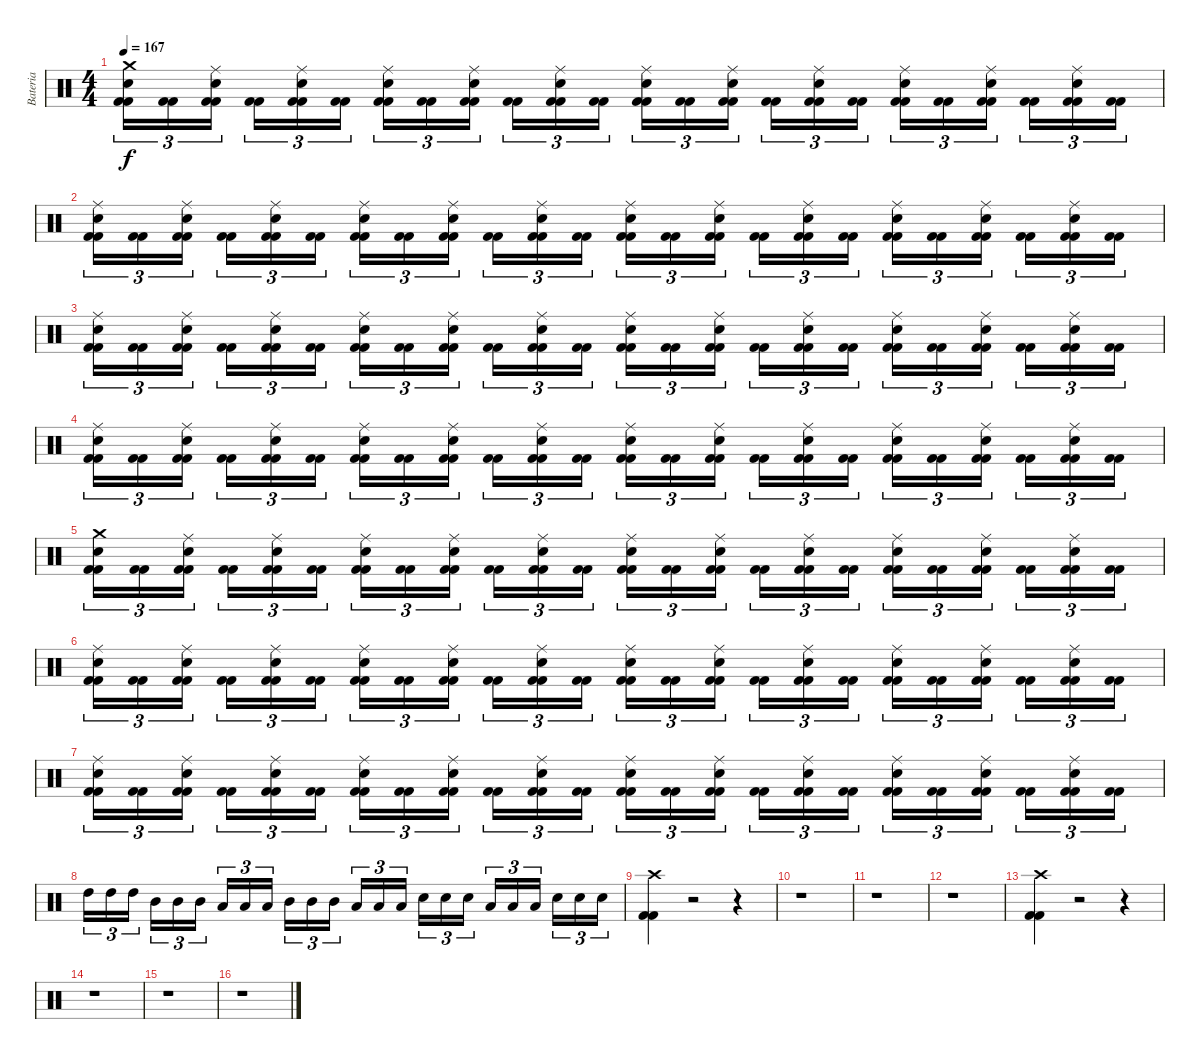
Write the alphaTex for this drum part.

\track ("Bateria" "Bateria") {instrument percussion}
\staff {score}
\articulation defaults
\ts (4 4)
\tempo 167
\clef neutral
\ks c
("Kick (hit) 2" "Kick (hit) 2" "Snare (hit) 2" "Crash medium (hit)").16{tu (3 2) dy f} ("Kick (hit) 2" "Kick (hit) 2").16{tu (3 2)} ("Kick (hit) 2" "Kick (hit) 2" "Snare (hit) 2" "Ride (middle)").16{tu (3 2)} ("Kick (hit) 2" "Kick (hit) 2").16{tu (3 2)} ("Kick (hit) 2" "Kick (hit) 2" "Snare (hit) 2" "Ride (middle)").16{tu (3 2)} ("Kick (hit) 2" "Kick (hit) 2").16{tu (3 2)} ("Kick (hit) 2" "Kick (hit) 2" "Snare (hit) 2" "Ride (middle)").16{tu (3 2)} ("Kick (hit) 2" "Kick (hit) 2").16{tu (3 2)} ("Kick (hit) 2" "Kick (hit) 2" "Snare (hit) 2" "Ride (middle)").16{tu (3 2)} ("Kick (hit) 2" "Kick (hit) 2").16{tu (3 2)} ("Kick (hit) 2" "Kick (hit) 2" "Snare (hit) 2" "Ride (middle)").16{tu (3 2)} ("Kick (hit) 2" "Kick (hit) 2").16{tu (3 2)} ("Kick (hit) 2" "Kick (hit) 2" "Snare (hit) 2" "Ride (middle)").16{tu (3 2)} ("Kick (hit) 2" "Kick (hit) 2").16{tu (3 2)} ("Kick (hit) 2" "Kick (hit) 2" "Snare (hit) 2" "Ride (middle)").16{tu (3 2)} ("Kick (hit) 2" "Kick (hit) 2").16{tu (3 2)} ("Kick (hit) 2" "Kick (hit) 2" "Snare (hit) 2" "Ride (middle)").16{tu (3 2)} ("Kick (hit) 2" "Kick (hit) 2").16{tu (3 2)} ("Kick (hit) 2" "Kick (hit) 2" "Snare (hit) 2" "Ride (middle)").16{tu (3 2)} ("Kick (hit) 2" "Kick (hit) 2").16{tu (3 2)} ("Kick (hit) 2" "Kick (hit) 2" "Snare (hit) 2" "Ride (middle)").16{tu (3 2)} ("Kick (hit) 2" "Kick (hit) 2").16{tu (3 2)} ("Kick (hit) 2" "Kick (hit) 2" "Snare (hit) 2" "Ride (middle)").16{tu (3 2)} ("Kick (hit) 2" "Kick (hit) 2").16{tu (3 2)} |
("Kick (hit) 2" "Kick (hit) 2" "Snare (hit) 2" "Ride (middle)").16{tu (3 2)} ("Kick (hit) 2" "Kick (hit) 2").16{tu (3 2)} ("Kick (hit) 2" "Kick (hit) 2" "Snare (hit) 2" "Ride (middle)").16{tu (3 2)} ("Kick (hit) 2" "Kick (hit) 2").16{tu (3 2)} ("Kick (hit) 2" "Kick (hit) 2" "Snare (hit) 2" "Ride (middle)").16{tu (3 2)} ("Kick (hit) 2" "Kick (hit) 2").16{tu (3 2)} ("Kick (hit) 2" "Kick (hit) 2" "Snare (hit) 2" "Ride (middle)").16{tu (3 2)} ("Kick (hit) 2" "Kick (hit) 2").16{tu (3 2)} ("Kick (hit) 2" "Kick (hit) 2" "Snare (hit) 2" "Ride (middle)").16{tu (3 2)} ("Kick (hit) 2" "Kick (hit) 2").16{tu (3 2)} ("Kick (hit) 2" "Kick (hit) 2" "Snare (hit) 2" "Ride (middle)").16{tu (3 2)} ("Kick (hit) 2" "Kick (hit) 2").16{tu (3 2)} ("Kick (hit) 2" "Kick (hit) 2" "Snare (hit) 2" "Ride (middle)").16{tu (3 2)} ("Kick (hit) 2" "Kick (hit) 2").16{tu (3 2)} ("Kick (hit) 2" "Kick (hit) 2" "Snare (hit) 2" "Ride (middle)").16{tu (3 2)} ("Kick (hit) 2" "Kick (hit) 2").16{tu (3 2)} ("Kick (hit) 2" "Kick (hit) 2" "Snare (hit) 2" "Ride (middle)").16{tu (3 2)} ("Kick (hit) 2" "Kick (hit) 2").16{tu (3 2)} ("Kick (hit) 2" "Kick (hit) 2" "Snare (hit) 2" "Ride (middle)").16{tu (3 2)} ("Kick (hit) 2" "Kick (hit) 2").16{tu (3 2)} ("Kick (hit) 2" "Kick (hit) 2" "Snare (hit) 2" "Ride (middle)").16{tu (3 2)} ("Kick (hit) 2" "Kick (hit) 2").16{tu (3 2)} ("Kick (hit) 2" "Kick (hit) 2" "Snare (hit) 2" "Ride (middle)").16{tu (3 2)} ("Kick (hit) 2" "Kick (hit) 2").16{tu (3 2)} |
("Kick (hit) 2" "Kick (hit) 2" "Snare (hit) 2" "Ride (middle)").16{tu (3 2)} ("Kick (hit) 2" "Kick (hit) 2").16{tu (3 2)} ("Kick (hit) 2" "Kick (hit) 2" "Snare (hit) 2" "Ride (middle)").16{tu (3 2)} ("Kick (hit) 2" "Kick (hit) 2").16{tu (3 2)} ("Kick (hit) 2" "Kick (hit) 2" "Snare (hit) 2" "Ride (middle)").16{tu (3 2)} ("Kick (hit) 2" "Kick (hit) 2").16{tu (3 2)} ("Kick (hit) 2" "Kick (hit) 2" "Snare (hit) 2" "Ride (middle)").16{tu (3 2)} ("Kick (hit) 2" "Kick (hit) 2").16{tu (3 2)} ("Kick (hit) 2" "Kick (hit) 2" "Snare (hit) 2" "Ride (middle)").16{tu (3 2)} ("Kick (hit) 2" "Kick (hit) 2").16{tu (3 2)} ("Kick (hit) 2" "Kick (hit) 2" "Snare (hit) 2" "Ride (middle)").16{tu (3 2)} ("Kick (hit) 2" "Kick (hit) 2").16{tu (3 2)} ("Kick (hit) 2" "Kick (hit) 2" "Snare (hit) 2" "Ride (middle)").16{tu (3 2)} ("Kick (hit) 2" "Kick (hit) 2").16{tu (3 2)} ("Kick (hit) 2" "Kick (hit) 2" "Snare (hit) 2" "Ride (middle)").16{tu (3 2)} ("Kick (hit) 2" "Kick (hit) 2").16{tu (3 2)} ("Kick (hit) 2" "Kick (hit) 2" "Snare (hit) 2" "Ride (middle)").16{tu (3 2)} ("Kick (hit) 2" "Kick (hit) 2").16{tu (3 2)} ("Kick (hit) 2" "Kick (hit) 2" "Snare (hit) 2" "Ride (middle)").16{tu (3 2)} ("Kick (hit) 2" "Kick (hit) 2").16{tu (3 2)} ("Kick (hit) 2" "Kick (hit) 2" "Snare (hit) 2" "Ride (middle)").16{tu (3 2)} ("Kick (hit) 2" "Kick (hit) 2").16{tu (3 2)} ("Kick (hit) 2" "Kick (hit) 2" "Snare (hit) 2" "Ride (middle)").16{tu (3 2)} ("Kick (hit) 2" "Kick (hit) 2").16{tu (3 2)} |
("Kick (hit) 2" "Kick (hit) 2" "Snare (hit) 2" "Ride (middle)").16{tu (3 2)} ("Kick (hit) 2" "Kick (hit) 2").16{tu (3 2)} ("Kick (hit) 2" "Kick (hit) 2" "Snare (hit) 2" "Ride (middle)").16{tu (3 2)} ("Kick (hit) 2" "Kick (hit) 2").16{tu (3 2)} ("Kick (hit) 2" "Kick (hit) 2" "Snare (hit) 2" "Ride (middle)").16{tu (3 2)} ("Kick (hit) 2" "Kick (hit) 2").16{tu (3 2)} ("Kick (hit) 2" "Kick (hit) 2" "Snare (hit) 2" "Ride (middle)").16{tu (3 2)} ("Kick (hit) 2" "Kick (hit) 2").16{tu (3 2)} ("Kick (hit) 2" "Kick (hit) 2" "Snare (hit) 2" "Ride (middle)").16{tu (3 2)} ("Kick (hit) 2" "Kick (hit) 2").16{tu (3 2)} ("Kick (hit) 2" "Kick (hit) 2" "Snare (hit) 2" "Ride (middle)").16{tu (3 2)} ("Kick (hit) 2" "Kick (hit) 2").16{tu (3 2)} ("Kick (hit) 2" "Kick (hit) 2" "Snare (hit) 2" "Ride (middle)").16{tu (3 2)} ("Kick (hit) 2" "Kick (hit) 2").16{tu (3 2)} ("Kick (hit) 2" "Kick (hit) 2" "Snare (hit) 2" "Ride (middle)").16{tu (3 2)} ("Kick (hit) 2" "Kick (hit) 2").16{tu (3 2)} ("Kick (hit) 2" "Kick (hit) 2" "Snare (hit) 2" "Ride (middle)").16{tu (3 2)} ("Kick (hit) 2" "Kick (hit) 2").16{tu (3 2)} ("Kick (hit) 2" "Kick (hit) 2" "Snare (hit) 2" "Ride (middle)").16{tu (3 2)} ("Kick (hit) 2" "Kick (hit) 2").16{tu (3 2)} ("Kick (hit) 2" "Kick (hit) 2" "Snare (hit) 2" "Ride (middle)").16{tu (3 2)} ("Kick (hit) 2" "Kick (hit) 2").16{tu (3 2)} ("Kick (hit) 2" "Kick (hit) 2" "Snare (hit) 2" "Ride (middle)").16{tu (3 2)} ("Kick (hit) 2" "Kick (hit) 2").16{tu (3 2)} |
("Kick (hit) 2" "Kick (hit) 2" "Snare (hit) 2" "Crash medium (hit)").16{tu (3 2)} ("Kick (hit) 2" "Kick (hit) 2").16{tu (3 2)} ("Kick (hit) 2" "Kick (hit) 2" "Snare (hit) 2" "Ride (middle)").16{tu (3 2)} ("Kick (hit) 2" "Kick (hit) 2").16{tu (3 2)} ("Kick (hit) 2" "Kick (hit) 2" "Snare (hit) 2" "Ride (middle)").16{tu (3 2)} ("Kick (hit) 2" "Kick (hit) 2").16{tu (3 2)} ("Kick (hit) 2" "Kick (hit) 2" "Snare (hit) 2" "Ride (middle)").16{tu (3 2)} ("Kick (hit) 2" "Kick (hit) 2").16{tu (3 2)} ("Kick (hit) 2" "Kick (hit) 2" "Snare (hit) 2" "Ride (middle)").16{tu (3 2)} ("Kick (hit) 2" "Kick (hit) 2").16{tu (3 2)} ("Kick (hit) 2" "Kick (hit) 2" "Snare (hit) 2" "Ride (middle)").16{tu (3 2)} ("Kick (hit) 2" "Kick (hit) 2").16{tu (3 2)} ("Kick (hit) 2" "Kick (hit) 2" "Snare (hit) 2" "Ride (middle)").16{tu (3 2)} ("Kick (hit) 2" "Kick (hit) 2").16{tu (3 2)} ("Kick (hit) 2" "Kick (hit) 2" "Snare (hit) 2" "Ride (middle)").16{tu (3 2)} ("Kick (hit) 2" "Kick (hit) 2").16{tu (3 2)} ("Kick (hit) 2" "Kick (hit) 2" "Snare (hit) 2" "Ride (middle)").16{tu (3 2)} ("Kick (hit) 2" "Kick (hit) 2").16{tu (3 2)} ("Kick (hit) 2" "Kick (hit) 2" "Snare (hit) 2" "Ride (middle)").16{tu (3 2)} ("Kick (hit) 2" "Kick (hit) 2").16{tu (3 2)} ("Kick (hit) 2" "Kick (hit) 2" "Snare (hit) 2" "Ride (middle)").16{tu (3 2)} ("Kick (hit) 2" "Kick (hit) 2").16{tu (3 2)} ("Kick (hit) 2" "Kick (hit) 2" "Snare (hit) 2" "Ride (middle)").16{tu (3 2)} ("Kick (hit) 2" "Kick (hit) 2").16{tu (3 2)} |
("Kick (hit) 2" "Kick (hit) 2" "Snare (hit) 2" "Ride (middle)").16{tu (3 2)} ("Kick (hit) 2" "Kick (hit) 2").16{tu (3 2)} ("Kick (hit) 2" "Kick (hit) 2" "Snare (hit) 2" "Ride (middle)").16{tu (3 2)} ("Kick (hit) 2" "Kick (hit) 2").16{tu (3 2)} ("Kick (hit) 2" "Kick (hit) 2" "Snare (hit) 2" "Ride (middle)").16{tu (3 2)} ("Kick (hit) 2" "Kick (hit) 2").16{tu (3 2)} ("Kick (hit) 2" "Kick (hit) 2" "Snare (hit) 2" "Ride (middle)").16{tu (3 2)} ("Kick (hit) 2" "Kick (hit) 2").16{tu (3 2)} ("Kick (hit) 2" "Kick (hit) 2" "Snare (hit) 2" "Ride (middle)").16{tu (3 2)} ("Kick (hit) 2" "Kick (hit) 2").16{tu (3 2)} ("Kick (hit) 2" "Kick (hit) 2" "Snare (hit) 2" "Ride (middle)").16{tu (3 2)} ("Kick (hit) 2" "Kick (hit) 2").16{tu (3 2)} ("Kick (hit) 2" "Kick (hit) 2" "Snare (hit) 2" "Ride (middle)").16{tu (3 2)} ("Kick (hit) 2" "Kick (hit) 2").16{tu (3 2)} ("Kick (hit) 2" "Kick (hit) 2" "Snare (hit) 2" "Ride (middle)").16{tu (3 2)} ("Kick (hit) 2" "Kick (hit) 2").16{tu (3 2)} ("Kick (hit) 2" "Kick (hit) 2" "Snare (hit) 2" "Ride (middle)").16{tu (3 2)} ("Kick (hit) 2" "Kick (hit) 2").16{tu (3 2)} ("Kick (hit) 2" "Kick (hit) 2" "Snare (hit) 2" "Ride (middle)").16{tu (3 2)} ("Kick (hit) 2" "Kick (hit) 2").16{tu (3 2)} ("Kick (hit) 2" "Kick (hit) 2" "Snare (hit) 2" "Ride (middle)").16{tu (3 2)} ("Kick (hit) 2" "Kick (hit) 2").16{tu (3 2)} ("Kick (hit) 2" "Kick (hit) 2" "Snare (hit) 2" "Ride (middle)").16{tu (3 2)} ("Kick (hit) 2" "Kick (hit) 2").16{tu (3 2)} |
("Kick (hit) 2" "Kick (hit) 2" "Snare (hit) 2" "Ride (middle)").16{tu (3 2)} ("Kick (hit) 2" "Kick (hit) 2").16{tu (3 2)} ("Kick (hit) 2" "Kick (hit) 2" "Snare (hit) 2" "Ride (middle)").16{tu (3 2)} ("Kick (hit) 2" "Kick (hit) 2").16{tu (3 2)} ("Kick (hit) 2" "Kick (hit) 2" "Snare (hit) 2" "Ride (middle)").16{tu (3 2)} ("Kick (hit) 2" "Kick (hit) 2").16{tu (3 2)} ("Kick (hit) 2" "Kick (hit) 2" "Snare (hit) 2" "Ride (middle)").16{tu (3 2)} ("Kick (hit) 2" "Kick (hit) 2").16{tu (3 2)} ("Kick (hit) 2" "Kick (hit) 2" "Snare (hit) 2" "Ride (middle)").16{tu (3 2)} ("Kick (hit) 2" "Kick (hit) 2").16{tu (3 2)} ("Kick (hit) 2" "Kick (hit) 2" "Snare (hit) 2" "Ride (middle)").16{tu (3 2)} ("Kick (hit) 2" "Kick (hit) 2").16{tu (3 2)} ("Kick (hit) 2" "Kick (hit) 2" "Snare (hit) 2" "Ride (middle)").16{tu (3 2)} ("Kick (hit) 2" "Kick (hit) 2").16{tu (3 2)} ("Kick (hit) 2" "Kick (hit) 2" "Snare (hit) 2" "Ride (middle)").16{tu (3 2)} ("Kick (hit) 2" "Kick (hit) 2").16{tu (3 2)} ("Kick (hit) 2" "Kick (hit) 2" "Snare (hit) 2" "Ride (middle)").16{tu (3 2)} ("Kick (hit) 2" "Kick (hit) 2").16{tu (3 2)} ("Kick (hit) 2" "Kick (hit) 2" "Snare (hit) 2" "Ride (middle)").16{tu (3 2)} ("Kick (hit) 2" "Kick (hit) 2").16{tu (3 2)} ("Kick (hit) 2" "Kick (hit) 2" "Snare (hit) 2" "Ride (middle)").16{tu (3 2)} ("Kick (hit) 2" "Kick (hit) 2").16{tu (3 2)} ("Kick (hit) 2" "Kick (hit) 2" "Snare (hit) 2" "Ride (middle)").16{tu (3 2)} ("Kick (hit) 2" "Kick (hit) 2").16{tu (3 2)} |
"High Tom (hit)".16{tu (3 2)} "High Tom (hit)".16{tu (3 2)} "High Tom (hit)".16{tu (3 2)} "Mid Tom (hit)".16{tu (3 2)} "Mid Tom (hit)".16{tu (3 2)} "Mid Tom (hit)".16{tu (3 2)} "Low Tom (hit)".16{tu (3 2)} "Low Tom (hit)".16{tu (3 2)} "Low Tom (hit)".16{tu (3 2)} "Mid Tom (hit)".16{tu (3 2)} "Mid Tom (hit)".16{tu (3 2)} "Mid Tom (hit)".16{tu (3 2)} "Low Tom (hit)".16{tu (3 2)} "Low Tom (hit)".16{tu (3 2)} "Low Tom (hit)".16{tu (3 2)} "Snare (hit) 2".16{tu (3 2)} "Snare (hit) 2".16{tu (3 2)} "Snare (hit) 2".16{tu (3 2)} "Low Tom (hit)".16{tu (3 2)} "Low Tom (hit)".16{tu (3 2)} "Low Tom (hit)".16{tu (3 2)} "Snare (hit) 2".16{tu (3 2)} "Snare (hit) 2".16{tu (3 2)} "Snare (hit) 2".16{tu (3 2)} |
("Kick (hit) 2" "Kick (hit) 2" "Crash high (hit)").4 r.2 r.4 |
r.1 |
r.1 |
r.1 |
("Kick (hit) 2" "Kick (hit) 2" "Crash high (hit)").4 r.2 r.4 |
r.1 |
r.1 |
r.1
